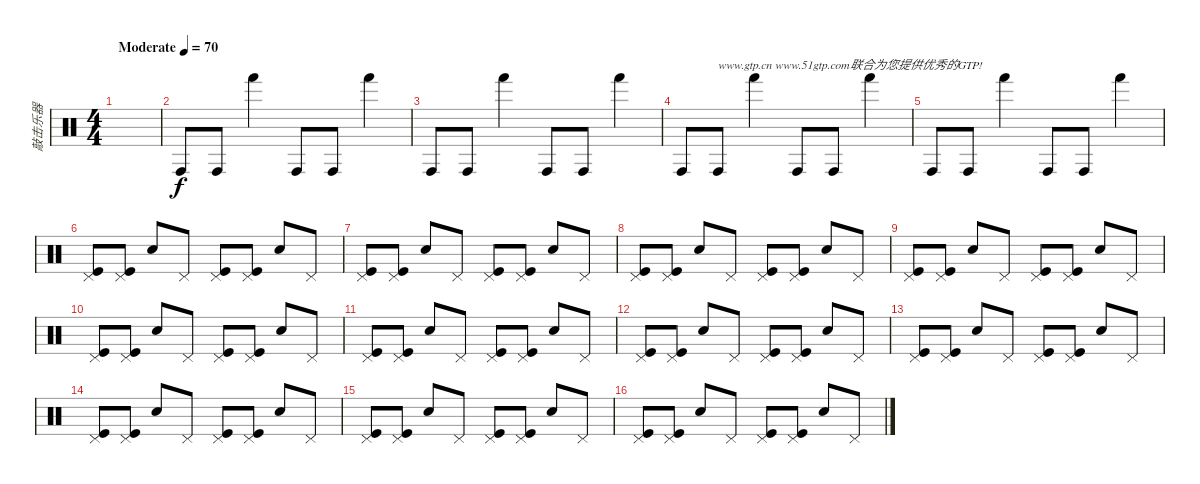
\track ("敲击乐器" "敲击乐器") {instrument percussion}
\staff {score}
\articulation defaults
\ts (4 4)
\tempo (70 "Moderate")
\clef neutral
\ks c
|
"Conga high (hit)".8 "Conga high (hit)".8 "Hand (hit)".4 "Conga high (hit)".8 "Conga high (hit)".8 "Hand (hit)".4 |
"Conga high (hit)".8 "Conga high (hit)".8 "Hand (hit)".4 "Conga high (hit)".8 "Conga high (hit)".8 "Hand (hit)".4 |
"Conga high (hit)".8 "Conga high (hit)".8{txt "www.gtp.cn www.51gtp.com联合为您提供优秀的GTP!"} "Hand (hit)".4 "Conga high (hit)".8 "Conga high (hit)".8 "Hand (hit)".4 |
"Conga high (hit)".8 "Conga high (hit)".8 "Hand (hit)".4 "Conga high (hit)".8 "Conga high (hit)".8 "Hand (hit)".4 |
("Pedal Hi-Hat (hit)" "Kick (hit)").8 ("Pedal Hi-Hat (hit)" "Kick (hit)").8 "Snare (hit) 2".8 "Pedal Hi-Hat (hit)".8 ("Pedal Hi-Hat (hit)" "Kick (hit)").8 ("Pedal Hi-Hat (hit)" "Kick (hit)").8 "Snare (hit) 2".8 "Pedal Hi-Hat (hit)".8 |
("Pedal Hi-Hat (hit)" "Kick (hit)").8 ("Pedal Hi-Hat (hit)" "Kick (hit)").8 "Snare (hit) 2".8 "Pedal Hi-Hat (hit)".8 ("Pedal Hi-Hat (hit)" "Kick (hit)").8 ("Pedal Hi-Hat (hit)" "Kick (hit)").8 "Snare (hit) 2".8 "Pedal Hi-Hat (hit)".8 |
("Pedal Hi-Hat (hit)" "Kick (hit)").8 ("Pedal Hi-Hat (hit)" "Kick (hit)").8 "Snare (hit) 2".8 "Pedal Hi-Hat (hit)".8 ("Pedal Hi-Hat (hit)" "Kick (hit)").8 ("Pedal Hi-Hat (hit)" "Kick (hit)").8 "Snare (hit) 2".8 "Pedal Hi-Hat (hit)".8 |
("Pedal Hi-Hat (hit)" "Kick (hit)").8 ("Pedal Hi-Hat (hit)" "Kick (hit)").8 "Snare (hit) 2".8 "Pedal Hi-Hat (hit)".8 ("Pedal Hi-Hat (hit)" "Kick (hit)").8 ("Pedal Hi-Hat (hit)" "Kick (hit)").8 "Snare (hit) 2".8 "Pedal Hi-Hat (hit)".8 |
("Pedal Hi-Hat (hit)" "Kick (hit)").8 ("Pedal Hi-Hat (hit)" "Kick (hit)").8 "Snare (hit) 2".8 "Pedal Hi-Hat (hit)".8 ("Pedal Hi-Hat (hit)" "Kick (hit)").8 ("Pedal Hi-Hat (hit)" "Kick (hit)").8 "Snare (hit) 2".8 "Pedal Hi-Hat (hit)".8 |
("Pedal Hi-Hat (hit)" "Kick (hit)").8 ("Pedal Hi-Hat (hit)" "Kick (hit)").8 "Snare (hit) 2".8 "Pedal Hi-Hat (hit)".8 ("Pedal Hi-Hat (hit)" "Kick (hit)").8 ("Pedal Hi-Hat (hit)" "Kick (hit)").8 "Snare (hit) 2".8 "Pedal Hi-Hat (hit)".8 |
("Pedal Hi-Hat (hit)" "Kick (hit)").8 ("Pedal Hi-Hat (hit)" "Kick (hit)").8 "Snare (hit) 2".8 "Pedal Hi-Hat (hit)".8 ("Pedal Hi-Hat (hit)" "Kick (hit)").8 ("Pedal Hi-Hat (hit)" "Kick (hit)").8 "Snare (hit) 2".8 "Pedal Hi-Hat (hit)".8 |
("Pedal Hi-Hat (hit)" "Kick (hit)").8 ("Pedal Hi-Hat (hit)" "Kick (hit)").8 "Snare (hit) 2".8 "Pedal Hi-Hat (hit)".8 ("Pedal Hi-Hat (hit)" "Kick (hit)").8 ("Pedal Hi-Hat (hit)" "Kick (hit)").8 "Snare (hit) 2".8 "Pedal Hi-Hat (hit)".8 |
("Pedal Hi-Hat (hit)" "Kick (hit)").8 ("Pedal Hi-Hat (hit)" "Kick (hit)").8 "Snare (hit) 2".8 "Pedal Hi-Hat (hit)".8 ("Pedal Hi-Hat (hit)" "Kick (hit)").8 ("Pedal Hi-Hat (hit)" "Kick (hit)").8 "Snare (hit) 2".8 "Pedal Hi-Hat (hit)".8 |
("Pedal Hi-Hat (hit)" "Kick (hit)").8 ("Pedal Hi-Hat (hit)" "Kick (hit)").8 "Snare (hit) 2".8 "Pedal Hi-Hat (hit)".8 ("Pedal Hi-Hat (hit)" "Kick (hit)").8 ("Pedal Hi-Hat (hit)" "Kick (hit)").8 "Snare (hit) 2".8 "Pedal Hi-Hat (hit)".8 |
("Pedal Hi-Hat (hit)" "Kick (hit)").8 ("Pedal Hi-Hat (hit)" "Kick (hit)").8 "Snare (hit) 2".8 "Pedal Hi-Hat (hit)".8 ("Pedal Hi-Hat (hit)" "Kick (hit)").8 ("Pedal Hi-Hat (hit)" "Kick (hit)").8 "Snare (hit) 2".8 "Pedal Hi-Hat (hit)".8
